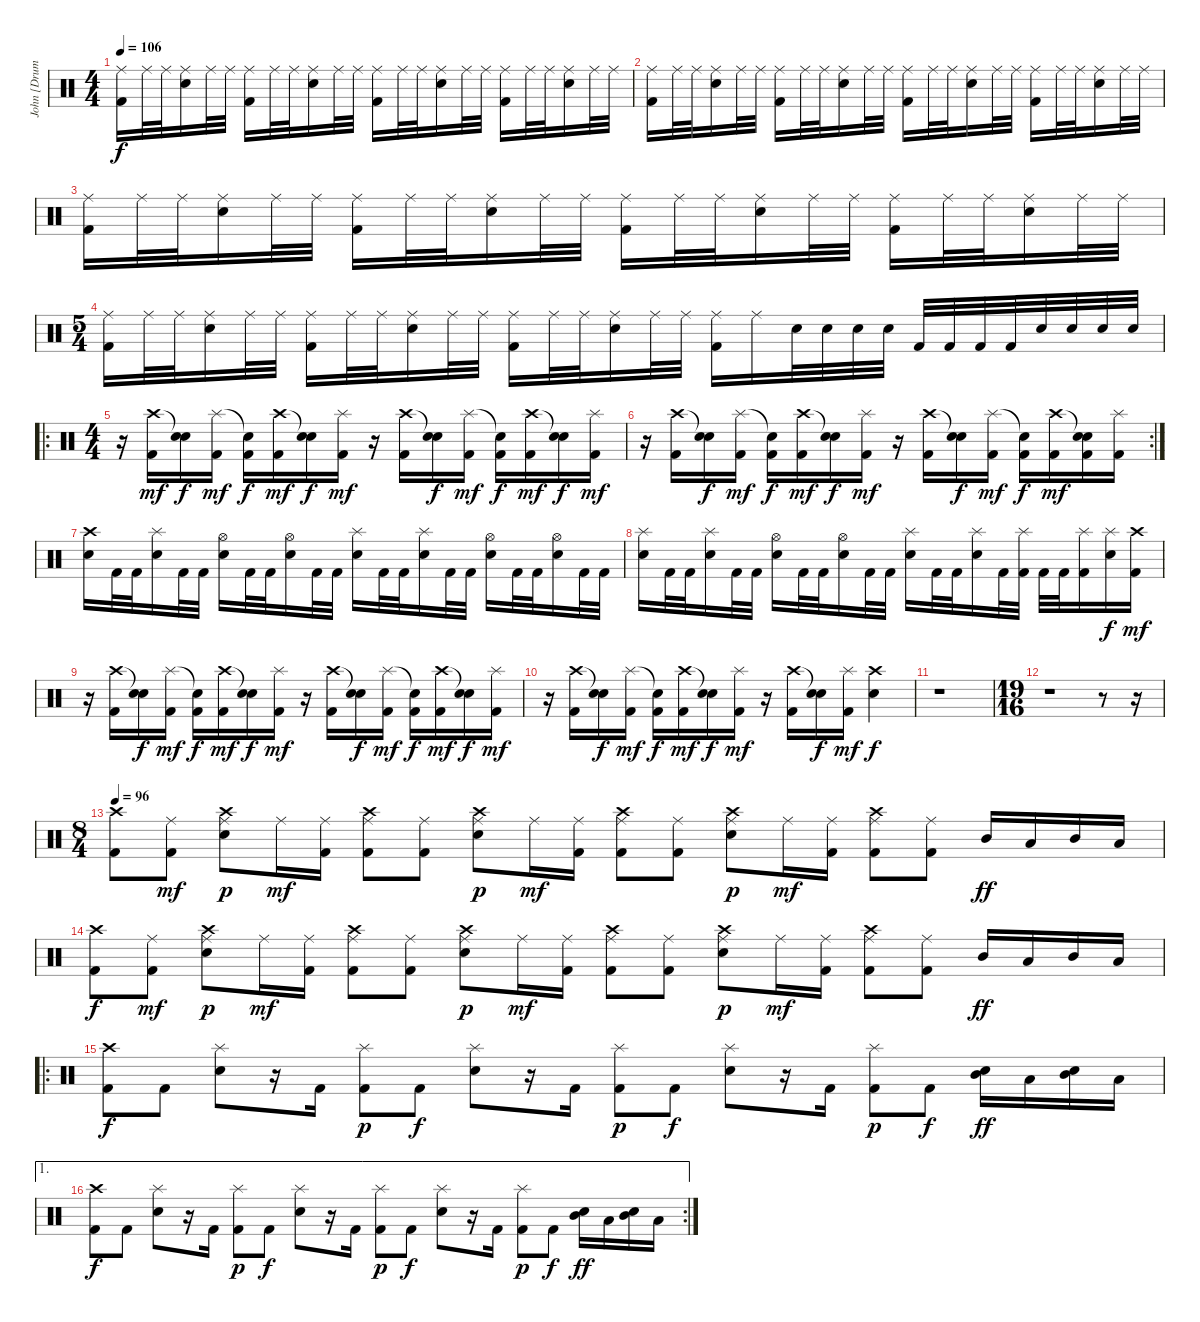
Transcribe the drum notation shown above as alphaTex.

\track ("John [Drums]" "John [Drum") {instrument percussion}
\staff {score}
\articulation defaults
\ts (4 4)
\tempo 106
\clef neutral
\ks c
("Ride (middle)" "Kick (hit) 2").16{dy f} "Ride (middle)".32 "Ride (middle)".32 ("Ride (middle)" "Electric Snare (hit)").16 "Ride (middle)".32 "Ride (middle)".32 ("Ride (middle)" "Kick (hit) 2").16 "Ride (middle)".32 "Ride (middle)".32 ("Ride (middle)" "Electric Snare (hit)").16 "Ride (middle)".32 "Ride (middle)".32 ("Ride (middle)" "Kick (hit) 2").16 "Ride (middle)".32 "Ride (middle)".32 ("Ride (middle)" "Electric Snare (hit)").16 "Ride (middle)".32 "Ride (middle)".32 ("Ride (middle)" "Kick (hit) 2").16 "Ride (middle)".32 "Ride (middle)".32 ("Ride (middle)" "Electric Snare (hit)").16 "Ride (middle)".32 "Ride (middle)".32 |
("Ride (middle)" "Kick (hit) 2").16 "Ride (middle)".32 "Ride (middle)".32 ("Ride (middle)" "Electric Snare (hit)").16 "Ride (middle)".32 "Ride (middle)".32 ("Ride (middle)" "Kick (hit) 2").16 "Ride (middle)".32 "Ride (middle)".32 ("Ride (middle)" "Electric Snare (hit)").16 "Ride (middle)".32 "Ride (middle)".32 ("Ride (middle)" "Kick (hit) 2").16 "Ride (middle)".32 "Ride (middle)".32 ("Ride (middle)" "Electric Snare (hit)").16 "Ride (middle)".32 "Ride (middle)".32 ("Ride (middle)" "Kick (hit) 2").16 "Ride (middle)".32 "Ride (middle)".32 ("Ride (middle)" "Electric Snare (hit)").16 "Ride (middle)".32 "Ride (middle)".32 |
("Ride (middle)" "Kick (hit) 2").16 "Ride (middle)".32 "Ride (middle)".32 ("Ride (middle)" "Electric Snare (hit)").16 "Ride (middle)".32 "Ride (middle)".32 ("Ride (middle)" "Kick (hit) 2").16 "Ride (middle)".32 "Ride (middle)".32 ("Ride (middle)" "Electric Snare (hit)").16 "Ride (middle)".32 "Ride (middle)".32 ("Ride (middle)" "Kick (hit) 2").16 "Ride (middle)".32 "Ride (middle)".32 ("Ride (middle)" "Electric Snare (hit)").16 "Ride (middle)".32 "Ride (middle)".32 ("Ride (middle)" "Kick (hit) 2").16 "Ride (middle)".32 "Ride (middle)".32 ("Ride (middle)" "Electric Snare (hit)").16 "Ride (middle)".32 "Ride (middle)".32 |
\ts (5 4)
("Ride (middle)" "Kick (hit) 2").16 "Ride (middle)".32 "Ride (middle)".32 ("Ride (middle)" "Electric Snare (hit)").16 "Ride (middle)".32 "Ride (middle)".32 ("Ride (middle)" "Kick (hit) 2").16 "Ride (middle)".32 "Ride (middle)".32 ("Ride (middle)" "Electric Snare (hit)").16 "Ride (middle)".32 "Ride (middle)".32 ("Ride (middle)" "Kick (hit) 2").16 "Ride (middle)".32 "Ride (middle)".32 ("Ride (middle)" "Electric Snare (hit)").16 "Ride (middle)".32 "Ride (middle)".32 ("Ride (middle)" "Kick (hit) 2").16 "Ride (middle)".16 "Electric Snare (hit)".32 "Electric Snare (hit)".32 "Electric Snare (hit)".32 "Electric Snare (hit)".32 "Kick (hit) 2".32 "Kick (hit) 2".32 "Kick (hit) 2".32 "Kick (hit) 2".32 "Electric Snare (hit)".32 "Electric Snare (hit)".32 "Electric Snare (hit)".32 "Electric Snare (hit)".32 |
\ro
\ts (4 4)
r.16 ("Crash high (hit)" "Kick (hit) 2").16{dy mf} ("Snare (hit)"{t} "Electric Snare (hit)").16{dy f} ("Splash (hit)" "Kick (hit) 2").16{dy mf} ("Snare (hit)"{t} "Kick (hit) 2").16{dy f} ("Crash high (hit)" "Kick (hit) 2").16{dy mf} ("Snare (hit)"{t} "Electric Snare (hit)").16{dy f} ("Splash (hit)" "Kick (hit) 2").16{dy mf} r.16 ("Crash high (hit)" "Kick (hit) 2").16 ("Snare (hit)"{t} "Electric Snare (hit)").16{dy f} ("Splash (hit)" "Kick (hit) 2").16{dy mf} ("Snare (hit)"{t} "Kick (hit) 2").16{dy f} ("Crash high (hit)" "Kick (hit) 2").16{dy mf} ("Snare (hit)"{t} "Electric Snare (hit)").16{dy f} ("Splash (hit)" "Kick (hit) 2").16{dy mf} |
\rc 2
r.16 ("Crash high (hit)" "Kick (hit) 2").16 ("Snare (hit)"{t} "Electric Snare (hit)").16{dy f} ("Splash (hit)" "Kick (hit) 2").16{dy mf} ("Snare (hit)"{t} "Kick (hit) 2").16{dy f} ("Crash high (hit)" "Kick (hit) 2").16{dy mf} ("Snare (hit)"{t} "Electric Snare (hit)").16{dy f} ("Splash (hit)" "Kick (hit) 2").16{dy mf} r.16 ("Crash high (hit)" "Kick (hit) 2").16 ("Snare (hit)"{t} "Electric Snare (hit)").16{dy f} ("Splash (hit)" "Kick (hit) 2").16{dy mf} ("Snare (hit)"{t} "Kick (hit) 2").16{dy f} ("Crash high (hit)" "Kick (hit) 2").16{dy mf} ("Snare (hit)"{t} "Electric Snare (hit)" "Kick (hit) 2").16 ("Splash (hit)" "Kick (hit) 2").16 |
("Crash high (hit)" "Electric Snare (hit)").16 "Kick (hit) 2".32 "Kick (hit) 2".32 ("Splash (hit)" "Electric Snare (hit)").16 "Kick (hit) 2".32 "Kick (hit) 2".32 ("Hi-Hat (open)" "Electric Snare (hit)").16 "Kick (hit) 2".32 "Kick (hit) 2".32 ("Hi-Hat (open)" "Electric Snare (hit)").16 "Kick (hit) 2".32 "Kick (hit) 2".32 ("Splash (hit)" "Electric Snare (hit)").16 "Kick (hit) 2".32 "Kick (hit) 2".32 ("Splash (hit)" "Electric Snare (hit)").16 "Kick (hit) 2".32 "Kick (hit) 2".32 ("Hi-Hat (open)" "Electric Snare (hit)").16 "Kick (hit) 2".32 "Kick (hit) 2".32 ("Hi-Hat (open)" "Electric Snare (hit)").16 "Kick (hit) 2".32 "Kick (hit) 2".32 |
("Splash (hit)" "Electric Snare (hit)").16 "Kick (hit) 2".32 "Kick (hit) 2".32 ("Splash (hit)" "Electric Snare (hit)").16 "Kick (hit) 2".32 "Kick (hit) 2".32 ("Hi-Hat (open)" "Electric Snare (hit)").16 "Kick (hit) 2".32 "Kick (hit) 2".32 ("Hi-Hat (open)" "Electric Snare (hit)").16 "Kick (hit) 2".32 "Kick (hit) 2".32 ("Splash (hit)" "Electric Snare (hit)").16 "Kick (hit) 2".32 "Kick (hit) 2".32 ("Splash (hit)" "Electric Snare (hit)").16 "Kick (hit) 2".32 ("Splash (hit)" "Kick (hit) 2").32 "Kick (hit) 2".32 "Kick (hit) 2".32 ("Splash (hit)" "Kick (hit) 2").16 ("Splash (hit)" "Electric Snare (hit)").16{dy f} ("Crash high (hit)" "Kick (hit) 2").16{dy mf} |
r.16 ("Crash high (hit)" "Kick (hit) 2").16 ("Snare (hit)"{t} "Electric Snare (hit)").16{dy f} ("Splash (hit)" "Kick (hit) 2").16{dy mf} ("Snare (hit)"{t} "Kick (hit) 2").16{dy f} ("Crash high (hit)" "Kick (hit) 2").16{dy mf} ("Snare (hit)"{t} "Electric Snare (hit)").16{dy f} ("Splash (hit)" "Kick (hit) 2").16{dy mf} r.16 ("Crash high (hit)" "Kick (hit) 2").16 ("Snare (hit)"{t} "Electric Snare (hit)").16{dy f} ("Splash (hit)" "Kick (hit) 2").16{dy mf} ("Snare (hit)"{t} "Kick (hit) 2").16{dy f} ("Crash high (hit)" "Kick (hit) 2").16{dy mf} ("Snare (hit)"{t} "Electric Snare (hit)").16{dy f} ("Splash (hit)" "Kick (hit) 2").16{dy mf} |
r.16 ("Crash high (hit)" "Kick (hit) 2").16 ("Snare (hit)"{t} "Electric Snare (hit)").16{dy f} ("Splash (hit)" "Kick (hit) 2").16{dy mf} ("Snare (hit)"{t} "Kick (hit) 2").16{dy f} ("Crash high (hit)" "Kick (hit) 2").16{dy mf} ("Snare (hit)"{t} "Electric Snare (hit)").16{dy f} ("Splash (hit)" "Kick (hit) 2").16{dy mf} r.16 ("Crash high (hit)" "Kick (hit) 2").16 ("Snare (hit)"{t} "Electric Snare (hit)").16{dy f} ("Splash (hit)" "Kick (hit) 2").16{dy mf} ("Crash high (hit)" "Electric Snare (hit)").4{dy f} |
r.1 |
\ts (19 16)
r.1 r.8 r.16 |
\ts (8 4)
\tempo 96
("Crash high (hit)" "Kick (hit) 2").8 ("Ride (middle)" "Kick (hit) 2").8{dy mf} ("Crash high (hit)" "Ride (middle)" "Electric Snare (hit)").8{dy p} "Ride (middle)".16{dy mf} ("Ride (middle)" "Kick (hit) 2").16 ("Crash high (hit)" "Ride (middle)" "Kick (hit) 2").8 ("Ride (middle)" "Kick (hit) 2").8 ("Crash high (hit)" "Ride (middle)" "Electric Snare (hit)").8{dy p} "Ride (middle)".16{dy mf} ("Ride (middle)" "Kick (hit) 2").16 ("Crash high (hit)" "Ride (middle)" "Kick (hit) 2").8 ("Ride (middle)" "Kick (hit) 2").8 ("Crash high (hit)" "Ride (middle)" "Electric Snare (hit)").8{dy p} "Ride (middle)".16{dy mf} ("Ride (middle)" "Kick (hit) 2").16 ("Crash high (hit)" "Ride (middle)" "Kick (hit) 2").8 ("Ride (middle)" "Kick (hit) 2").8 "Mid Tom (hit)".16{dy ff} "Low Tom (hit)".16 "Mid Tom (hit)".16 "Low Tom (hit)".16 |
("Crash high (hit)" "Kick (hit) 2").8{dy f} ("Ride (middle)" "Kick (hit) 2").8{dy mf} ("Crash high (hit)" "Ride (middle)" "Electric Snare (hit)").8{dy p} "Ride (middle)".16{dy mf} ("Ride (middle)" "Kick (hit) 2").16 ("Crash high (hit)" "Ride (middle)" "Kick (hit) 2").8 ("Ride (middle)" "Kick (hit) 2").8 ("Crash high (hit)" "Ride (middle)" "Electric Snare (hit)").8{dy p} "Ride (middle)".16{dy mf} ("Ride (middle)" "Kick (hit) 2").16 ("Crash high (hit)" "Ride (middle)" "Kick (hit) 2").8 ("Ride (middle)" "Kick (hit) 2").8 ("Crash high (hit)" "Ride (middle)" "Electric Snare (hit)").8{dy p} "Ride (middle)".16{dy mf} ("Ride (middle)" "Kick (hit) 2").16 ("Crash high (hit)" "Ride (middle)" "Kick (hit) 2").8 ("Ride (middle)" "Kick (hit) 2").8 "Mid Tom (hit)".16{dy ff} "Low Tom (hit)".16 "Mid Tom (hit)".16 "Low Tom (hit)".16 |
\ro
("Crash high (hit)" "Kick (hit) 2").8{dy f} "Kick (hit) 2".8 ("Splash (hit)" "Electric Snare (hit)").8 r.16 "Kick (hit) 2".16 ("Splash (hit)" "Kick (hit) 2").8{dy p} "Kick (hit) 2".8{dy f} ("Splash (hit)" "Electric Snare (hit)").8 r.16 "Kick (hit) 2".16 ("Splash (hit)" "Kick (hit) 2").8{dy p} "Kick (hit) 2".8{dy f} ("Splash (hit)" "Electric Snare (hit)").8 r.16 "Kick (hit) 2".16 ("Splash (hit)" "Kick (hit) 2").8{dy p} "Kick (hit) 2".8{dy f} ("Electric Snare (hit)" "Mid Tom (hit)").16{dy ff} "Low Tom (hit)".16 ("Electric Snare (hit)" "Mid Tom (hit)").16 "Low Tom (hit)".16 |
\ae 1
\rc 2
("Crash high (hit)" "Kick (hit) 2").8{dy f} "Kick (hit) 2".8 ("Splash (hit)" "Electric Snare (hit)").8 r.16 "Kick (hit) 2".16 ("Splash (hit)" "Kick (hit) 2").8{dy p} "Kick (hit) 2".8{dy f} ("Splash (hit)" "Electric Snare (hit)").8 r.16 "Kick (hit) 2".16 ("Splash (hit)" "Kick (hit) 2").8{dy p} "Kick (hit) 2".8{dy f} ("Splash (hit)" "Electric Snare (hit)").8 r.16 "Kick (hit) 2".16 ("Splash (hit)" "Kick (hit) 2").8{dy p} "Kick (hit) 2".8{dy f} ("Electric Snare (hit)" "Mid Tom (hit)").16{dy ff} "Low Tom (hit)".16 ("Electric Snare (hit)" "Mid Tom (hit)").16 "Low Tom (hit)".16
